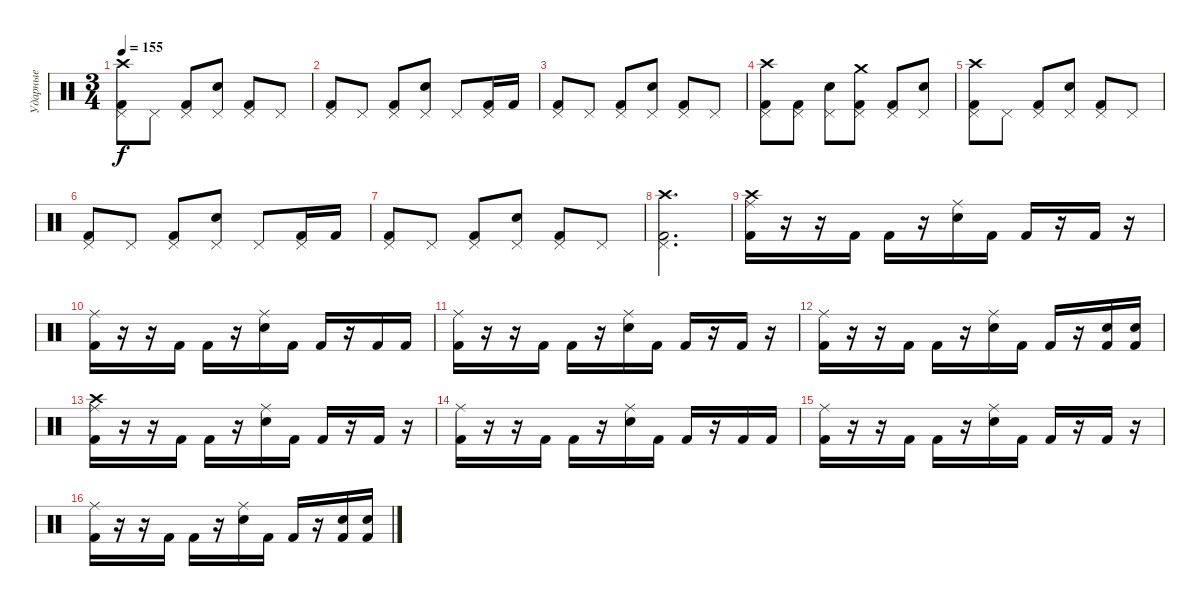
\track ("Ударные" "Ударные") {instrument percussion}
\staff {score}
\articulation defaults
\ts (3 4)
\tempo 155
\clef neutral
\ks c
("Crash high (hit)" "Pedal Hi-Hat (hit)" "Kick (hit) 2").8{dy f} "Pedal Hi-Hat (hit)".8 ("Pedal Hi-Hat (hit)" "Kick (hit) 2").8 ("Snare (hit) 2" "Pedal Hi-Hat (hit)").8 ("Pedal Hi-Hat (hit)" "Kick (hit) 2").8 "Pedal Hi-Hat (hit)".8 |
("Pedal Hi-Hat (hit)" "Kick (hit) 2").8 "Pedal Hi-Hat (hit)".8 ("Pedal Hi-Hat (hit)" "Kick (hit) 2").8 ("Snare (hit) 2" "Pedal Hi-Hat (hit)").8 "Pedal Hi-Hat (hit)".8 ("Pedal Hi-Hat (hit)" "Kick (hit) 2").16 "Kick (hit) 2".16 |
("Pedal Hi-Hat (hit)" "Kick (hit) 2").8 "Pedal Hi-Hat (hit)".8 ("Pedal Hi-Hat (hit)" "Kick (hit) 2").8 ("Snare (hit) 2" "Pedal Hi-Hat (hit)").8 ("Pedal Hi-Hat (hit)" "Kick (hit) 2").8 "Pedal Hi-Hat (hit)".8 |
("Crash high (hit)" "Pedal Hi-Hat (hit)" "Kick (hit) 2").8 ("Pedal Hi-Hat (hit)" "Kick (hit) 2").8 ("Pedal Hi-Hat (hit)" "Snare (hit) 2").8 ("Crash medium (hit)" "Pedal Hi-Hat (hit)" "Kick (hit) 2").8 ("Pedal Hi-Hat (hit)" "Kick (hit) 2").8 ("Pedal Hi-Hat (hit)" "Snare (hit) 2").8 |
("Crash high (hit)" "Pedal Hi-Hat (hit)" "Kick (hit) 2").8 "Pedal Hi-Hat (hit)".8 ("Pedal Hi-Hat (hit)" "Kick (hit) 2").8 ("Snare (hit) 2" "Pedal Hi-Hat (hit)").8 ("Pedal Hi-Hat (hit)" "Kick (hit) 2").8 "Pedal Hi-Hat (hit)".8 |
("Pedal Hi-Hat (hit)" "Kick (hit) 2").8 "Pedal Hi-Hat (hit)".8 ("Pedal Hi-Hat (hit)" "Kick (hit) 2").8 ("Snare (hit) 2" "Pedal Hi-Hat (hit)").8 "Pedal Hi-Hat (hit)".8 ("Pedal Hi-Hat (hit)" "Kick (hit) 2").16 "Kick (hit) 2".16 |
("Pedal Hi-Hat (hit)" "Kick (hit) 2").8 "Pedal Hi-Hat (hit)".8 ("Pedal Hi-Hat (hit)" "Kick (hit) 2").8 ("Snare (hit) 2" "Pedal Hi-Hat (hit)").8 ("Pedal Hi-Hat (hit)" "Kick (hit) 2").8 "Pedal Hi-Hat (hit)".8 |
("Crash high (hit)" "Pedal Hi-Hat (hit)" "Kick (hit) 2").2{d} |
("Ride (middle)" "Crash high (hit)" "Kick (hit) 2").16 r.16 r.16 "Kick (hit) 2".16 "Kick (hit) 2".16 r.16 ("Ride (middle)" "Snare (hit) 2").16 "Kick (hit) 2".16 "Kick (hit) 2".16 r.16 "Kick (hit) 2".16 r.16 |
("Ride (middle)" "Kick (hit) 2").16 r.16 r.16 "Kick (hit) 2".16 "Kick (hit) 2".16 r.16 ("Ride (middle)" "Snare (hit) 2").16 "Kick (hit) 2".16 "Kick (hit) 2".16 r.16 "Kick (hit) 2".16 "Kick (hit) 2".16 |
("Ride (middle)" "Kick (hit) 2").16 r.16 r.16 "Kick (hit) 2".16 "Kick (hit) 2".16 r.16 ("Ride (middle)" "Snare (hit) 2").16 "Kick (hit) 2".16 "Kick (hit) 2".16 r.16 "Kick (hit) 2".16 r.16 |
("Ride (middle)" "Kick (hit) 2").16 r.16 r.16 "Kick (hit) 2".16 "Kick (hit) 2".16 r.16 ("Ride (middle)" "Snare (hit) 2").16 "Kick (hit) 2".16 "Kick (hit) 2".16 r.16 ("Snare (hit) 2" "Kick (hit) 2").16 ("Snare (hit) 2" "Kick (hit) 2").16 |
("Ride (middle)" "Crash high (hit)" "Kick (hit) 2").16 r.16 r.16 "Kick (hit) 2".16 "Kick (hit) 2".16 r.16 ("Ride (middle)" "Snare (hit) 2").16 "Kick (hit) 2".16 "Kick (hit) 2".16 r.16 "Kick (hit) 2".16 r.16 |
("Ride (middle)" "Kick (hit) 2").16 r.16 r.16 "Kick (hit) 2".16 "Kick (hit) 2".16 r.16 ("Ride (middle)" "Snare (hit) 2").16 "Kick (hit) 2".16 "Kick (hit) 2".16 r.16 "Kick (hit) 2".16 "Kick (hit) 2".16 |
("Ride (middle)" "Kick (hit) 2").16 r.16 r.16 "Kick (hit) 2".16 "Kick (hit) 2".16 r.16 ("Ride (middle)" "Snare (hit) 2").16 "Kick (hit) 2".16 "Kick (hit) 2".16 r.16 "Kick (hit) 2".16 r.16 |
("Ride (middle)" "Kick (hit) 2").16 r.16 r.16 "Kick (hit) 2".16 "Kick (hit) 2".16 r.16 ("Ride (middle)" "Snare (hit) 2").16 "Kick (hit) 2".16 "Kick (hit) 2".16 r.16 ("Snare (hit) 2" "Kick (hit) 2").16 ("Snare (hit) 2" "Kick (hit) 2").16
